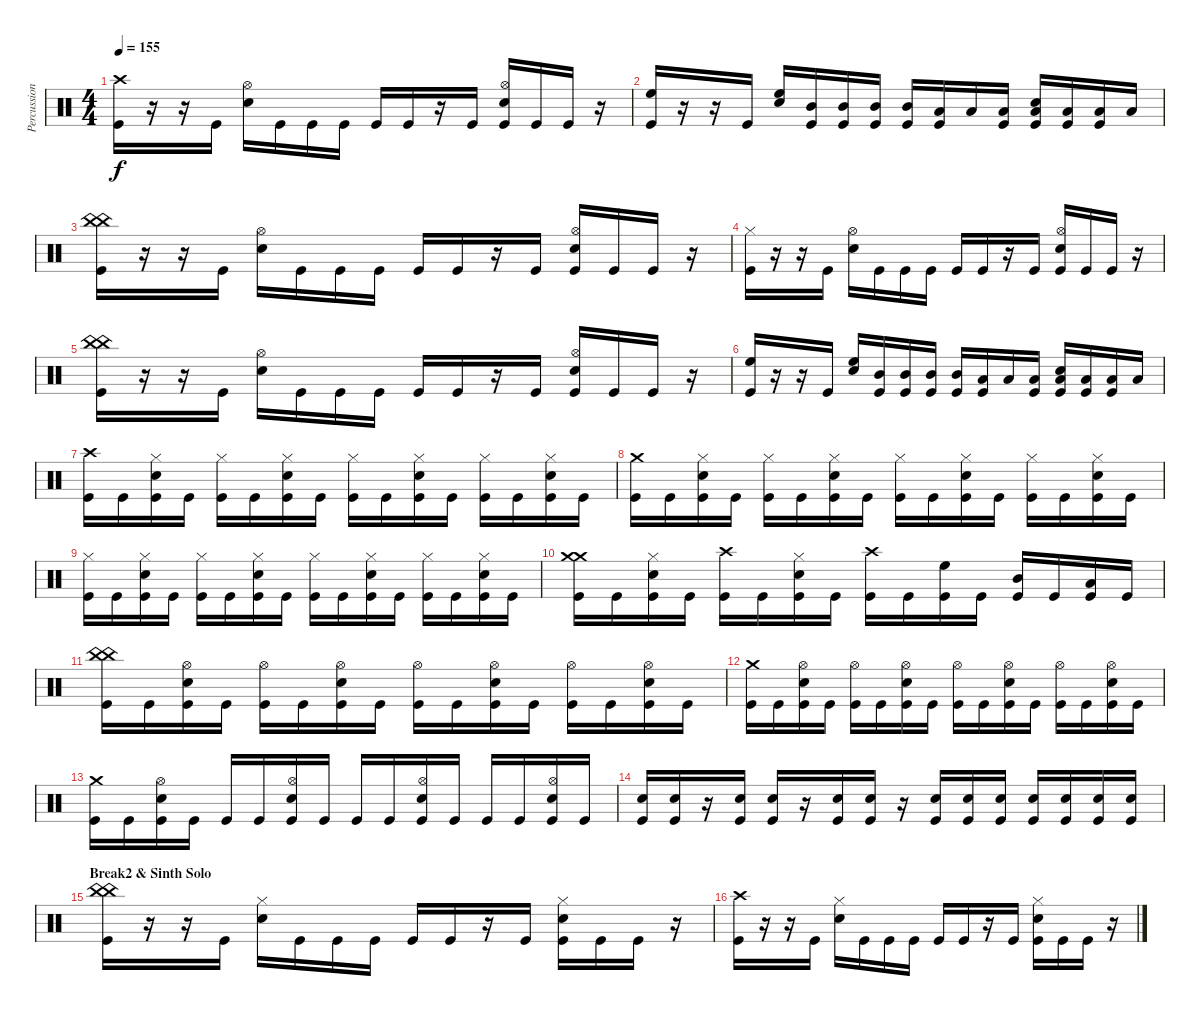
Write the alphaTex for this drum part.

\track ("Percussion" "Percussion") {instrument percussion}
\staff {score}
\articulation defaults
\ts (4 4)
\tempo 155
\clef neutral
\ks c
("Crash high (hit)" "Kick (hit)").16{dy f} r.16 r.16 "Kick (hit)".16 ("Hi-Hat (open)" "Electric Snare (hit)").16 "Kick (hit)".16 "Kick (hit)".16 "Kick (hit)".16 "Kick (hit)".16 "Kick (hit)".16 r.16 "Kick (hit)".16 ("Hi-Hat (open)" "Electric Snare (hit)" "Kick (hit)").16 "Kick (hit)".16 "Kick (hit)".16 r.16 |
("High Floor Tom (hit)" "Kick (hit)").16 r.16 r.16 "Kick (hit)".16 ("High Floor Tom (hit)" "Electric Snare (hit)").16 ("Mid Tom (hit)" "Kick (hit)").16 ("Mid Tom (hit)" "Kick (hit)").16 ("Mid Tom (hit)" "Kick (hit)").16 ("Mid Tom (hit)" "Kick (hit)").16 ("Low Tom (hit)" "Kick (hit)").16 "Low Tom (hit)".16 ("Low Tom (hit)" "Kick (hit)").16 ("Low Tom (hit)" "Electric Snare (hit)" "Kick (hit)").16 ("Low Floor Tom (hit)" "Kick (hit)").16 ("Low Floor Tom (hit)" "Kick (hit)").16 "Low Floor Tom (hit)".16 |
("China (hit)" "China (hit)" "Kick (hit)").16 r.16 r.16 "Kick (hit)".16 ("Hi-Hat (open)" "Electric Snare (hit)").16 "Kick (hit)".16 "Kick (hit)".16 "Kick (hit)".16 "Kick (hit)".16 "Kick (hit)".16 r.16 "Kick (hit)".16 ("Hi-Hat (open)" "Electric Snare (hit)" "Kick (hit)").16 "Kick (hit)".16 "Kick (hit)".16 r.16 |
("Hi-Hat (closed)" "Kick (hit)").16 r.16 r.16 "Kick (hit)".16 ("Hi-Hat (open)" "Electric Snare (hit)").16 "Kick (hit)".16 "Kick (hit)".16 "Kick (hit)".16 "Kick (hit)".16 "Kick (hit)".16 r.16 "Kick (hit)".16 ("Hi-Hat (open)" "Electric Snare (hit)" "Kick (hit)").16 "Kick (hit)".16 "Kick (hit)".16 r.16 |
("China (hit)" "China (hit)" "Kick (hit)").16 r.16 r.16 "Kick (hit)".16 ("Hi-Hat (open)" "Electric Snare (hit)").16 "Kick (hit)".16 "Kick (hit)".16 "Kick (hit)".16 "Kick (hit)".16 "Kick (hit)".16 r.16 "Kick (hit)".16 ("Hi-Hat (open)" "Electric Snare (hit)" "Kick (hit)").16 "Kick (hit)".16 "Kick (hit)".16 r.16 |
("High Floor Tom (hit)" "Kick (hit)").16 r.16 r.16 "Kick (hit)".16 ("High Floor Tom (hit)" "Electric Snare (hit)").16 ("Mid Tom (hit)" "Kick (hit)").16 ("Mid Tom (hit)" "Kick (hit)").16 ("Mid Tom (hit)" "Kick (hit)").16 ("Mid Tom (hit)" "Kick (hit)").16 ("Low Tom (hit)" "Kick (hit)").16 "Low Tom (hit)".16 ("Low Tom (hit)" "Kick (hit)").16 ("Low Tom (hit)" "Electric Snare (hit)" "Kick (hit)").16 ("Low Floor Tom (hit)" "Kick (hit)").16 ("Low Floor Tom (hit)" "Kick (hit)").16 "Low Floor Tom (hit)".16 |
("Crash high (hit)" "Kick (hit)").16 "Kick (hit)".16 ("Hi-Hat (closed)" "Electric Snare (hit)" "Kick (hit)").16 "Kick (hit)".16 ("Hi-Hat (closed)" "Kick (hit)").16 "Kick (hit)".16 ("Hi-Hat (closed)" "Electric Snare (hit)" "Kick (hit)").16 "Kick (hit)".16 ("Hi-Hat (closed)" "Kick (hit)").16 "Kick (hit)".16 ("Hi-Hat (closed)" "Electric Snare (hit)" "Kick (hit)").16 "Kick (hit)".16 ("Hi-Hat (closed)" "Kick (hit)").16 "Kick (hit)".16 ("Hi-Hat (closed)" "Electric Snare (hit)" "Kick (hit)").16 "Kick (hit)".16 |
("Crash medium (hit)" "Kick (hit)").16 "Kick (hit)".16 ("Hi-Hat (closed)" "Electric Snare (hit)" "Kick (hit)").16 "Kick (hit)".16 ("Hi-Hat (closed)" "Kick (hit)").16 "Kick (hit)".16 ("Hi-Hat (closed)" "Electric Snare (hit)" "Kick (hit)").16 "Kick (hit)".16 ("Hi-Hat (closed)" "Kick (hit)").16 "Kick (hit)".16 ("Hi-Hat (closed)" "Electric Snare (hit)" "Kick (hit)").16 "Kick (hit)".16 ("Hi-Hat (closed)" "Kick (hit)").16 "Kick (hit)".16 ("Hi-Hat (closed)" "Electric Snare (hit)" "Kick (hit)").16 "Kick (hit)".16 |
("Hi-Hat (closed)" "Kick (hit)").16 "Kick (hit)".16 ("Hi-Hat (closed)" "Electric Snare (hit)" "Kick (hit)").16 "Kick (hit)".16 ("Hi-Hat (closed)" "Kick (hit)").16 "Kick (hit)".16 ("Hi-Hat (closed)" "Electric Snare (hit)" "Kick (hit)").16 "Kick (hit)".16 ("Hi-Hat (closed)" "Kick (hit)").16 "Kick (hit)".16 ("Hi-Hat (closed)" "Electric Snare (hit)" "Kick (hit)").16 "Kick (hit)".16 ("Hi-Hat (closed)" "Kick (hit)").16 "Kick (hit)".16 ("Hi-Hat (closed)" "Electric Snare (hit)" "Kick (hit)").16 "Kick (hit)".16 |
("Crash medium (hit)" "Crash medium (hit)" "Kick (hit)").16 "Kick (hit)".16 ("Hi-Hat (closed)" "Electric Snare (hit)" "Kick (hit)").16 "Kick (hit)".16 ("Crash high (hit)" "Kick (hit)").16 "Kick (hit)".16 ("Hi-Hat (closed)" "Electric Snare (hit)" "Kick (hit)").16 "Kick (hit)".16 ("Crash high (hit)" "Kick (hit)").16 "Kick (hit)".16 ("High Floor Tom (hit)" "Kick (hit)").16 "Kick (hit)".16 ("Mid Tom (hit)" "Kick (hit)").16 "Kick (hit)".16 ("Low Tom (hit)" "Kick (hit)").16 "Kick (hit)".16 |
("China (hit)" "China (hit)" "Kick (hit)").16 "Kick (hit)".16 ("Hi-Hat (open)" "Electric Snare (hit)" "Kick (hit)").16 "Kick (hit)".16 ("Hi-Hat (open)" "Kick (hit)").16 "Kick (hit)".16 ("Hi-Hat (open)" "Electric Snare (hit)" "Kick (hit)").16 "Kick (hit)".16 ("Hi-Hat (open)" "Kick (hit)").16 "Kick (hit)".16 ("Hi-Hat (open)" "Electric Snare (hit)" "Kick (hit)").16 "Kick (hit)".16 ("Hi-Hat (open)" "Kick (hit)").16 "Kick (hit)".16 ("Hi-Hat (open)" "Electric Snare (hit)" "Kick (hit)").16 "Kick (hit)".16 |
("Crash medium (hit)" "Kick (hit)").16 "Kick (hit)".16 ("Hi-Hat (open)" "Electric Snare (hit)" "Kick (hit)").16 "Kick (hit)".16 ("Hi-Hat (open)" "Kick (hit)").16 "Kick (hit)".16 ("Hi-Hat (open)" "Electric Snare (hit)" "Kick (hit)").16 "Kick (hit)".16 ("Hi-Hat (open)" "Kick (hit)").16 "Kick (hit)".16 ("Hi-Hat (open)" "Electric Snare (hit)" "Kick (hit)").16 "Kick (hit)".16 ("Hi-Hat (open)" "Kick (hit)").16 "Kick (hit)".16 ("Hi-Hat (open)" "Electric Snare (hit)" "Kick (hit)").16 "Kick (hit)".16 |
("Crash medium (hit)" "Kick (hit)").16 "Kick (hit)".16 ("Hi-Hat (open)" "Electric Snare (hit)" "Kick (hit)").16 "Kick (hit)".16 "Kick (hit)".16 "Kick (hit)".16 ("Hi-Hat (open)" "Electric Snare (hit)" "Kick (hit)").16 "Kick (hit)".16 "Kick (hit)".16 "Kick (hit)".16 ("Hi-Hat (open)" "Electric Snare (hit)" "Kick (hit)").16 "Kick (hit)".16 "Kick (hit)".16 "Kick (hit)".16 ("Hi-Hat (open)" "Electric Snare (hit)" "Kick (hit)").16 "Kick (hit)".16 |
("Electric Snare (hit)" "Kick (hit)").16 ("Electric Snare (hit)" "Kick (hit)").16 r.16 ("Electric Snare (hit)" "Kick (hit)").16 ("Electric Snare (hit)" "Kick (hit)").16 r.16 ("Electric Snare (hit)" "Kick (hit)").16 ("Electric Snare (hit)" "Kick (hit)").16 r.16 ("Electric Snare (hit)" "Kick (hit)").16 ("Electric Snare (hit)" "Kick (hit)").16 ("Electric Snare (hit)" "Kick (hit)").16 ("Electric Snare (hit)" "Kick (hit)").16 ("Electric Snare (hit)" "Kick (hit)").16 ("Electric Snare (hit)" "Kick (hit)").16 ("Electric Snare (hit)" "Kick (hit)").16 |
\section ("" "Break2 & Sinth Solo")
("China (hit)" "China (hit)" "Kick (hit)").16 r.16 r.16 "Kick (hit)".16 ("Hi-Hat (closed)" "Electric Snare (hit)").16 "Kick (hit)".16 "Kick (hit)".16 "Kick (hit)".16 "Kick (hit)".16 "Kick (hit)".16 r.16 "Kick (hit)".16 ("Hi-Hat (closed)" "Electric Snare (hit)" "Kick (hit)").16 "Kick (hit)".16 "Kick (hit)".16 r.16 |
("Crash high (hit)" "Kick (hit)").16 r.16 r.16 "Kick (hit)".16 ("Hi-Hat (closed)" "Electric Snare (hit)").16 "Kick (hit)".16 "Kick (hit)".16 "Kick (hit)".16 "Kick (hit)".16 "Kick (hit)".16 r.16 "Kick (hit)".16 ("Hi-Hat (closed)" "Electric Snare (hit)" "Kick (hit)").16 "Kick (hit)".16 "Kick (hit)".16 r.16
